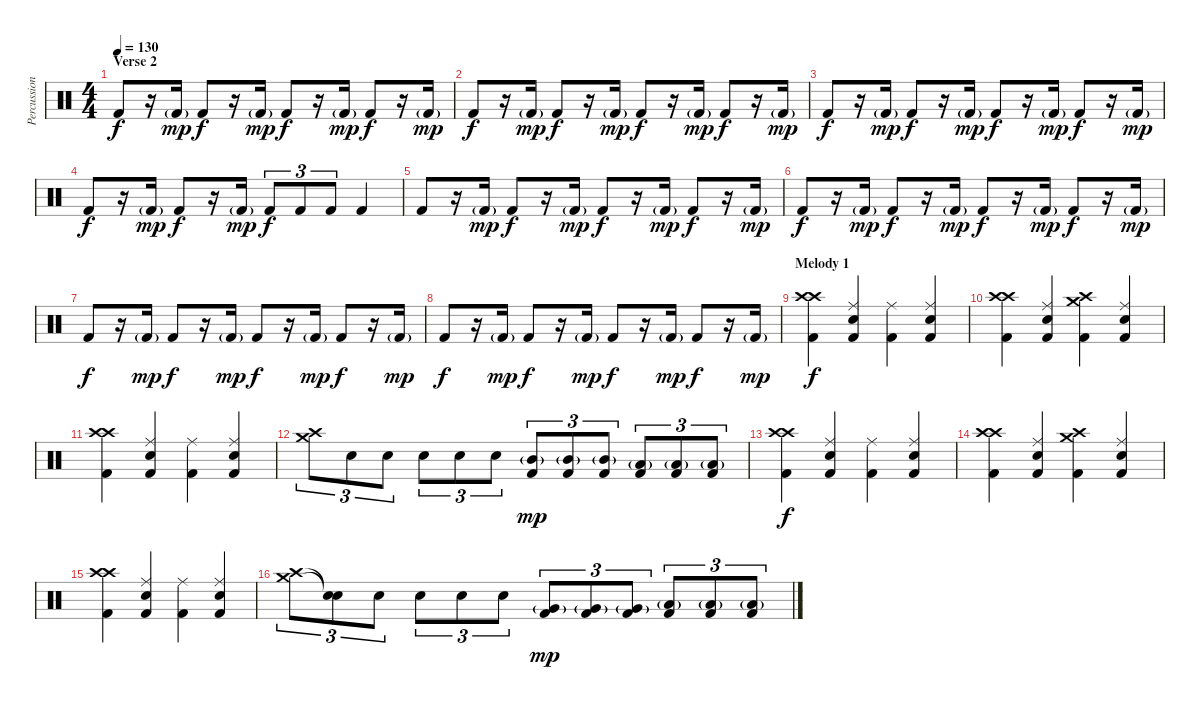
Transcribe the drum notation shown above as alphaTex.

\track ("Percussion - Rhythm" "Percussion") {instrument percussion}
\staff {score}
\articulation defaults
\ts (4 4)
\section ("" "Verse 2")
\tempo 130
\clef neutral
\ks c "Kick (hit) 2".8{dy f}
r.16 "Kick (hit) 2"{g}.16{dy mp} "Kick (hit) 2".8{dy f} r.16 "Kick (hit) 2"{g}.16{dy mp} "Kick (hit) 2".8{dy f} r.16 "Kick (hit) 2"{g}.16{dy mp} "Kick (hit) 2".8{dy f} r.16 "Kick (hit) 2"{g}.16{dy mp} |
"Kick (hit) 2".8{dy f} r.16 "Kick (hit) 2"{g}.16{dy mp} "Kick (hit) 2".8{dy f} r.16 "Kick (hit) 2"{g}.16{dy mp} "Kick (hit) 2".8{dy f} r.16 "Kick (hit) 2"{g}.16{dy mp} "Kick (hit) 2".8{dy f} r.16 "Kick (hit) 2"{g}.16{dy mp} |
"Kick (hit) 2".8{dy f} r.16 "Kick (hit) 2"{g}.16{dy mp} "Kick (hit) 2".8{dy f} r.16 "Kick (hit) 2"{g}.16{dy mp} "Kick (hit) 2".8{dy f} r.16 "Kick (hit) 2"{g}.16{dy mp} "Kick (hit) 2".8{dy f} r.16 "Kick (hit) 2"{g}.16{dy mp} |
"Kick (hit) 2".8{dy f} r.16 "Kick (hit) 2"{g}.16{dy mp} "Kick (hit) 2".8{dy f} r.16 "Kick (hit) 2"{g}.16{dy mp} "Kick (hit) 2".8{tu (3 2) dy f} "Kick (hit) 2".8{tu (3 2)} "Kick (hit) 2".8{tu (3 2)} "Kick (hit) 2".4 |
"Kick (hit) 2".8 r.16 "Kick (hit) 2"{g}.16{dy mp} "Kick (hit) 2".8{dy f} r.16 "Kick (hit) 2"{g}.16{dy mp} "Kick (hit) 2".8{dy f} r.16 "Kick (hit) 2"{g}.16{dy mp} "Kick (hit) 2".8{dy f} r.16 "Kick (hit) 2"{g}.16{dy mp} |
"Kick (hit) 2".8{dy f} r.16 "Kick (hit) 2"{g}.16{dy mp} "Kick (hit) 2".8{dy f} r.16 "Kick (hit) 2"{g}.16{dy mp} "Kick (hit) 2".8{dy f} r.16 "Kick (hit) 2"{g}.16{dy mp} "Kick (hit) 2".8{dy f} r.16 "Kick (hit) 2"{g}.16{dy mp} |
"Kick (hit) 2".8{dy f} r.16 "Kick (hit) 2"{g}.16{dy mp} "Kick (hit) 2".8{dy f} r.16 "Kick (hit) 2"{g}.16{dy mp} "Kick (hit) 2".8{dy f} r.16 "Kick (hit) 2"{g}.16{dy mp} "Kick (hit) 2".8{dy f} r.16 "Kick (hit) 2"{g}.16{dy mp} |
"Kick (hit) 2".8{dy f} r.16 "Kick (hit) 2"{g}.16{dy mp} "Kick (hit) 2".8{dy f} r.16 "Kick (hit) 2"{g}.16{dy mp} "Kick (hit) 2".8{dy f} r.16 "Kick (hit) 2"{g}.16{dy mp} "Kick (hit) 2".8{dy f} r.16 "Kick (hit) 2"{g}.16{dy mp} |
\section ("" "Melody 1")
("Crash high (hit)" "Crash high (hit)" "Kick (hit) 2").4{dy f volume 13} ("Ride (middle)" "Snare (hit) 2" "Kick (hit) 2").4 ("Ride (middle)" "Kick (hit) 2").4 ("Ride (middle)" "Snare (hit) 2" "Kick (hit) 2").4 |
("Crash high (hit)" "Crash high (hit)" "Kick (hit) 2").4 ("Ride (middle)" "Snare (hit) 2" "Kick (hit) 2").4 ("Crash medium (hit)" "Crash high (hit)" "Kick (hit) 2").4 ("Ride (middle)" "Snare (hit) 2" "Kick (hit) 2").4 |
("Crash high (hit)" "Crash high (hit)" "Kick (hit) 2").4{volume 13} ("Ride (middle)" "Snare (hit) 2" "Kick (hit) 2").4 ("Ride (middle)" "Kick (hit) 2").4 ("Ride (middle)" "Snare (hit) 2" "Kick (hit) 2").4 |
("Crash medium (hit)" "Crash high (hit)").8{tu (3 2)} "Snare (hit) 2".8{tu (3 2)} "Snare (hit) 2".8{tu (3 2)} "Snare (hit) 2".8{tu (3 2)} "Snare (hit) 2".8{tu (3 2)} "Snare (hit) 2".8{tu (3 2)} ("Mid Tom (hit)"{g} "Kick (hit) 2").8{tu (3 2) dy mp} ("Mid Tom (hit)"{g} "Kick (hit) 2").8{tu (3 2)} ("Mid Tom (hit)"{g} "Kick (hit) 2").8{tu (3 2)} ("Low Tom (hit)"{g} "Kick (hit) 2").8{tu (3 2)} ("Low Tom (hit)"{g} "Kick (hit) 2").8{tu (3 2)} ("Low Tom (hit)"{g} "Kick (hit) 2").8{tu (3 2)} |
("Crash high (hit)" "Crash high (hit)" "Kick (hit) 2").4{dy f volume 13} ("Ride (middle)" "Snare (hit) 2" "Kick (hit) 2").4 ("Ride (middle)" "Kick (hit) 2").4 ("Ride (middle)" "Snare (hit) 2" "Kick (hit) 2").4 |
("Crash high (hit)" "Crash high (hit)" "Kick (hit) 2").4 ("Ride (middle)" "Snare (hit) 2" "Kick (hit) 2").4 ("Crash medium (hit)" "Crash high (hit)" "Kick (hit) 2").4 ("Ride (middle)" "Snare (hit) 2" "Kick (hit) 2").4 |
("Crash high (hit)" "Crash high (hit)" "Kick (hit) 2").4{volume 13} ("Ride (middle)" "Snare (hit) 2" "Kick (hit) 2").4 ("Ride (middle)" "Kick (hit) 2").4 ("Ride (middle)" "Snare (hit) 2" "Kick (hit) 2").4 |
("Crash medium (hit)" "Crash high (hit)").8{tu (3 2)} ("Snare (hit)"{t} "Snare (hit)"{t}).8{tu (3 2)} "Snare (hit) 2".8{tu (3 2)} "Snare (hit) 2".8{tu (3 2)} "Snare (hit) 2".8{tu (3 2)} "Snare (hit) 2".8{tu (3 2)} ("Very Low Tom (hit)"{g} "Kick (hit) 2").8{tu (3 2) dy mp balance 16} ("Very Low Tom (hit)"{g} "Kick (hit) 2").8{tu (3 2)} ("Very Low Tom (hit)"{g} "Kick (hit) 2").8{tu (3 2)} ("Low Floor Tom (hit)"{g} "Kick (hit) 2").8{tu (3 2) balance 8} ("Low Floor Tom (hit)"{g} "Kick (hit) 2").8{tu (3 2)} ("Low Floor Tom (hit)"{g} "Kick (hit) 2").8{tu (3 2)}
